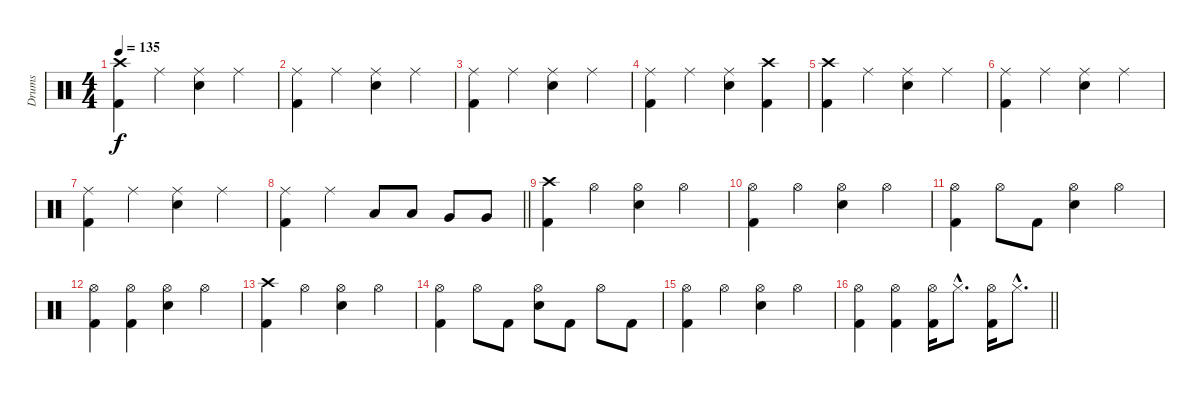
\track ("Drums" "Drums") {instrument percussion}
\staff {score}
\articulation defaults
\ts (4 4)
\tempo 135
\clef neutral
\ks c
("Crash high (hit)" "Kick (hit) 2").4{dy f} "Ride (middle)".4 ("Ride (middle)" "Electric Snare (hit)").4 "Ride (middle)".4 |
("Ride (middle)" "Kick (hit) 2").4 "Ride (middle)".4 ("Ride (middle)" "Electric Snare (hit)").4 "Ride (middle)".4 |
("Ride (middle)" "Kick (hit) 2").4 "Ride (middle)".4 ("Ride (middle)" "Electric Snare (hit)").4 "Ride (middle)".4 |
("Ride (middle)" "Kick (hit) 2").4 "Ride (middle)".4 ("Ride (middle)" "Electric Snare (hit)").4 ("Crash high (hit)" "Kick (hit) 2").4 |
("Crash high (hit)" "Kick (hit) 2").4 "Ride (middle)".4 ("Ride (middle)" "Electric Snare (hit)").4 "Ride (middle)".4 |
("Ride (middle)" "Kick (hit) 2").4 "Ride (middle)".4 ("Ride (middle)" "Electric Snare (hit)").4 "Ride (middle)".4 |
("Ride (middle)" "Kick (hit) 2").4 "Ride (middle)".4 ("Ride (middle)" "Electric Snare (hit)").4 "Ride (middle)".4 |
\barLineRight lightlight
("Ride (middle)" "Kick (hit) 2").4 "Ride (middle)".4 "Low Tom (hit)".8 "Low Tom (hit)".8 "Very Low Tom (hit)".8 "Very Low Tom (hit)".8 |
("Crash high (hit)" "Kick (hit) 2").4 "Hi-Hat (open)".4 ("Hi-Hat (open)" "Electric Snare (hit)").4 "Hi-Hat (open)".4 |
("Hi-Hat (open)" "Kick (hit) 2").4 "Hi-Hat (open)".4 ("Hi-Hat (open)" "Electric Snare (hit)").4 "Hi-Hat (open)".4 |
("Hi-Hat (open)" "Kick (hit) 2").4 "Hi-Hat (open)".8 "Kick (hit) 2".8 ("Hi-Hat (open)" "Electric Snare (hit)").4 "Hi-Hat (open)".4 |
("Hi-Hat (open)" "Kick (hit) 2").4 ("Hi-Hat (open)" "Kick (hit) 2").4 ("Hi-Hat (open)" "Electric Snare (hit)").4 "Hi-Hat (open)".4 |
("Crash high (hit)" "Kick (hit) 2").4 "Hi-Hat (open)".4 ("Hi-Hat (open)" "Electric Snare (hit)").4 "Hi-Hat (open)".4 |
("Hi-Hat (open)" "Kick (hit) 2").4 "Hi-Hat (open)".8 "Kick (hit) 2".8 ("Hi-Hat (open)" "Electric Snare (hit)").8 "Kick (hit) 2".8 "Hi-Hat (open)".8 "Kick (hit) 2".8 |
("Hi-Hat (open)" "Kick (hit) 2").4 "Hi-Hat (open)".4 ("Hi-Hat (open)" "Electric Snare (hit)").4 "Hi-Hat (open)".4 |
\barLineRight lightlight
("Hi-Hat (open)" "Kick (hit) 2").4 ("Hi-Hat (open)" "Kick (hit) 2").4 ("Hi-Hat (open)" "Kick (hit) 2").16 "Hi-Hat (closed)"{hac}.8{d} ("Hi-Hat (open)" "Kick (hit) 2").16 "Hi-Hat (closed)"{hac}.8{d}
